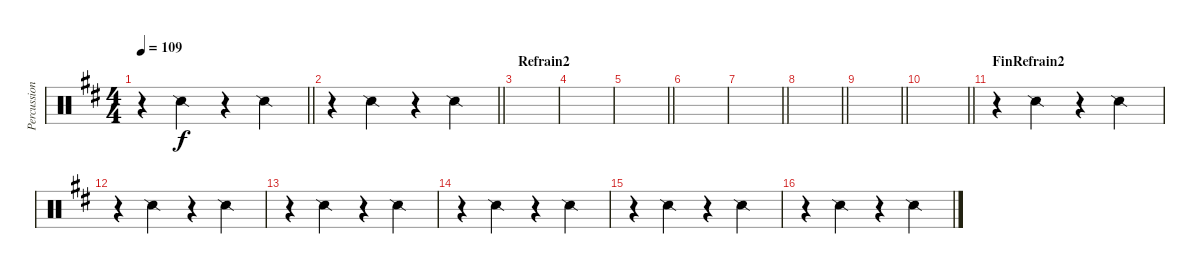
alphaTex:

\track ("Percussions" "Percussion") {instrument percussion}
\staff {score}
\articulation defaults
\ts (4 4)
\tempo 109
\clef neutral
\barLineRight lightlight
\ks d
r.4{dy f} "Snare (side stick) 2".4 r.4 "Snare (side stick) 2".4 |
\barLineRight lightlight
r.4 "Snare (side stick) 2".4 r.4 "Snare (side stick) 2".4 |
\section ("" "Refrain2")
|
|
\barLineRight lightlight
|
|
\barLineRight lightlight
|
\barLineRight lightlight
|
\barLineRight lightlight
|
\barLineRight lightlight
|
\section ("" "FinRefrain2")
r.4 "Snare (side stick) 2".4 r.4 "Snare (side stick) 2".4 |
r.4 "Snare (side stick) 2".4 r.4 "Snare (side stick) 2".4 |
r.4 "Snare (side stick) 2".4 r.4 "Snare (side stick) 2".4 |
r.4 "Snare (side stick) 2".4 r.4 "Snare (side stick) 2".4 |
r.4 "Snare (side stick) 2".4 r.4 "Snare (side stick) 2".4 |
r.4 "Snare (side stick) 2".4 r.4 "Snare (side stick) 2".4
